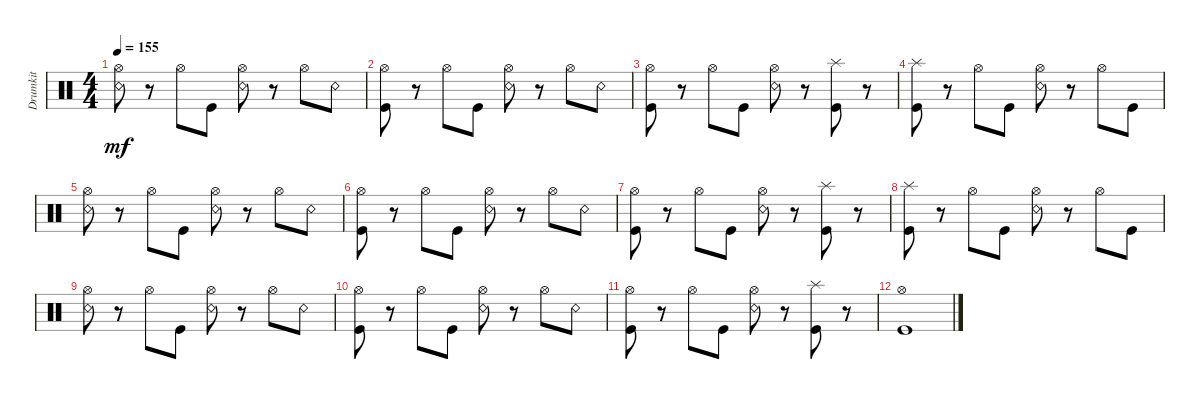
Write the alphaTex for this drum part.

\track ("Drumkit" "Drumkit") {instrument percussion}
\staff {score}
\articulation defaults
\ts (4 4)
\tempo 155
\clef neutral
\ks c
("Snare (rim shot)" "Hi-Hat (open)").8{dy mf} r.8 "Hi-Hat (open)".8 "Kick (hit)".8 ("Hi-Hat (open)" "Snare (rim shot)").8 r.8 "Hi-Hat (open)".8 "Snare (rim shot)".8 |
("Hi-Hat (open)" "Kick (hit)").8 r.8 "Hi-Hat (open)".8 "Kick (hit)".8 ("Hi-Hat (open)" "Snare (rim shot)").8 r.8 "Hi-Hat (open)".8 "Snare (rim shot)".8 |
("Kick (hit)" "Hi-Hat (open)").8 r.8 "Hi-Hat (open)".8 "Kick (hit)".8 ("Snare (rim shot)" "Hi-Hat (open)").8 r.8 ("Kick (hit)" "Splash (hit)").8 r.8 |
("Kick (hit)" "Splash (hit)").8 r.8 "Hi-Hat (open)".8 "Kick (hit)".8 ("Snare (rim shot)" "Hi-Hat (open)").8 r.8 "Hi-Hat (open)".8 "Kick (hit)".8 |
("Snare (rim shot)" "Hi-Hat (open)").8 r.8 "Hi-Hat (open)".8 "Kick (hit)".8 ("Hi-Hat (open)" "Snare (rim shot)").8 r.8 "Hi-Hat (open)".8 "Snare (rim shot)".8 |
("Hi-Hat (open)" "Kick (hit)").8 r.8 "Hi-Hat (open)".8 "Kick (hit)".8 ("Hi-Hat (open)" "Snare (rim shot)").8 r.8 "Hi-Hat (open)".8 "Snare (rim shot)".8 |
("Kick (hit)" "Hi-Hat (open)").8 r.8 "Hi-Hat (open)".8 "Kick (hit)".8 ("Snare (rim shot)" "Hi-Hat (open)").8 r.8 ("Kick (hit)" "Splash (hit)").8 r.8 |
("Kick (hit)" "Splash (hit)").8 r.8 "Hi-Hat (open)".8 "Kick (hit)".8 ("Snare (rim shot)" "Hi-Hat (open)").8 r.8 "Hi-Hat (open)".8 "Kick (hit)".8 |
("Snare (rim shot)" "Hi-Hat (open)").8 r.8 "Hi-Hat (open)".8 "Kick (hit)".8 ("Hi-Hat (open)" "Snare (rim shot)").8 r.8 "Hi-Hat (open)".8 "Snare (rim shot)".8 |
("Hi-Hat (open)" "Kick (hit)").8 r.8 "Hi-Hat (open)".8 "Kick (hit)".8 ("Hi-Hat (open)" "Snare (rim shot)").8 r.8 "Hi-Hat (open)".8 "Snare (rim shot)".8 |
("Kick (hit)" "Hi-Hat (open)").8 r.8 "Hi-Hat (open)".8 "Kick (hit)".8 ("Snare (rim shot)" "Hi-Hat (open)").8 r.8 ("Kick (hit)" "Splash (hit)").8 r.8 |
("Kick (hit)" "Hi-Hat (open)").1
